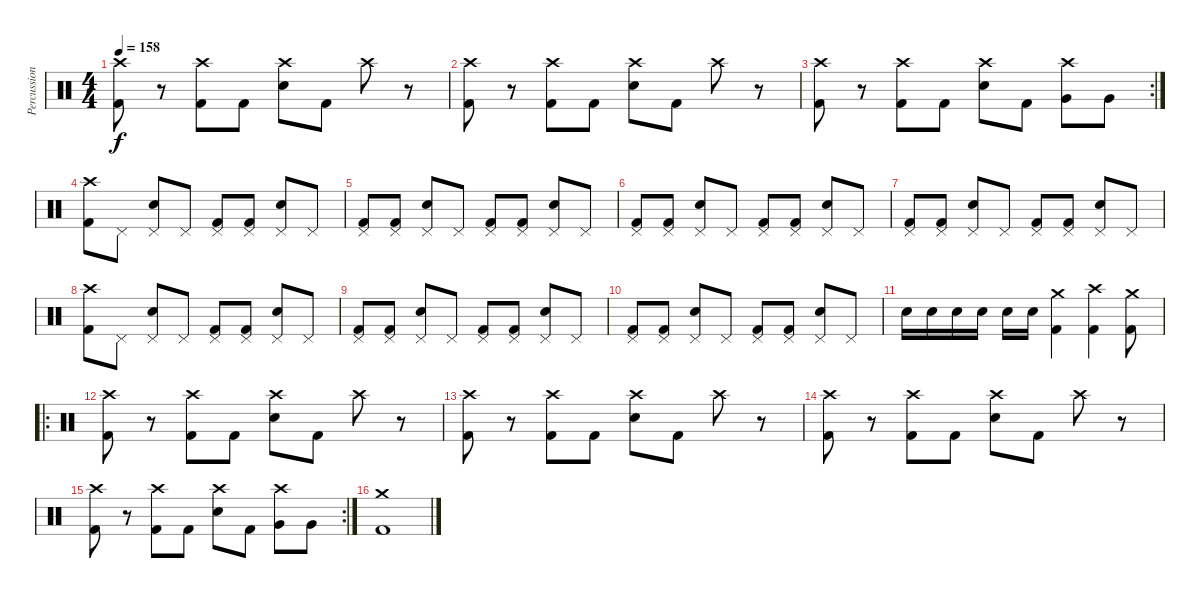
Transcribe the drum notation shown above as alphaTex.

\track ("Percussion" "Percussion") {instrument percussion}
\staff {score}
\articulation defaults
\ts (4 4)
\tempo 158
\clef neutral
\ks c
("Crash high (hit)" "Kick (hit) 2").8{dy f} r.8 ("Crash high (hit)" "Kick (hit) 2").8 "Kick (hit) 2".8 ("Crash high (hit)" "Snare (hit) 2").8 "Kick (hit) 2".8 "Crash high (hit)".8 r.8 |
("Crash high (hit)" "Kick (hit) 2").8 r.8 ("Crash high (hit)" "Kick (hit) 2").8 "Kick (hit) 2".8 ("Crash high (hit)" "Snare (hit) 2").8 "Kick (hit) 2".8 "Crash high (hit)".8 r.8 |
\rc 2
("Crash high (hit)" "Kick (hit) 2").8 r.8 ("Crash high (hit)" "Kick (hit) 2").8 "Kick (hit) 2".8 ("Crash high (hit)" "Snare (hit) 2").8 "Kick (hit) 2".8 ("Crash high (hit)" "Very Low Tom (hit)").8 "Very Low Tom (hit)".8 |
("Crash high (hit)" "Kick (hit) 2").8 "Pedal Hi-Hat (hit)".8 ("Pedal Hi-Hat (hit)" "Snare (hit) 2").8 "Pedal Hi-Hat (hit)".8 ("Pedal Hi-Hat (hit)" "Kick (hit) 2").8 ("Pedal Hi-Hat (hit)" "Kick (hit) 2").8 ("Pedal Hi-Hat (hit)" "Snare (hit) 2").8 "Pedal Hi-Hat (hit)".8 |
("Pedal Hi-Hat (hit)" "Kick (hit) 2").8 ("Pedal Hi-Hat (hit)" "Kick (hit) 2").8 ("Pedal Hi-Hat (hit)" "Snare (hit) 2").8 "Pedal Hi-Hat (hit)".8 ("Pedal Hi-Hat (hit)" "Kick (hit) 2").8 ("Pedal Hi-Hat (hit)" "Kick (hit) 2").8 ("Pedal Hi-Hat (hit)" "Snare (hit) 2").8 "Pedal Hi-Hat (hit)".8 |
("Pedal Hi-Hat (hit)" "Kick (hit) 2").8 ("Pedal Hi-Hat (hit)" "Kick (hit) 2").8 ("Pedal Hi-Hat (hit)" "Snare (hit) 2").8 "Pedal Hi-Hat (hit)".8 ("Pedal Hi-Hat (hit)" "Kick (hit) 2").8 ("Pedal Hi-Hat (hit)" "Kick (hit) 2").8 ("Pedal Hi-Hat (hit)" "Snare (hit) 2").8 "Pedal Hi-Hat (hit)".8 |
("Pedal Hi-Hat (hit)" "Kick (hit) 2").8 ("Pedal Hi-Hat (hit)" "Kick (hit) 2").8 ("Pedal Hi-Hat (hit)" "Snare (hit) 2").8 "Pedal Hi-Hat (hit)".8 ("Pedal Hi-Hat (hit)" "Kick (hit) 2").8 ("Pedal Hi-Hat (hit)" "Kick (hit) 2").8 ("Pedal Hi-Hat (hit)" "Snare (hit) 2").8 "Pedal Hi-Hat (hit)".8 |
("Crash high (hit)" "Kick (hit) 2").8 "Pedal Hi-Hat (hit)".8 ("Pedal Hi-Hat (hit)" "Snare (hit) 2").8 "Pedal Hi-Hat (hit)".8 ("Pedal Hi-Hat (hit)" "Kick (hit) 2").8 ("Pedal Hi-Hat (hit)" "Kick (hit) 2").8 ("Pedal Hi-Hat (hit)" "Snare (hit) 2").8 "Pedal Hi-Hat (hit)".8 |
("Pedal Hi-Hat (hit)" "Kick (hit) 2").8 ("Pedal Hi-Hat (hit)" "Kick (hit) 2").8 ("Pedal Hi-Hat (hit)" "Snare (hit) 2").8 "Pedal Hi-Hat (hit)".8 ("Pedal Hi-Hat (hit)" "Kick (hit) 2").8 ("Pedal Hi-Hat (hit)" "Kick (hit) 2").8 ("Pedal Hi-Hat (hit)" "Snare (hit) 2").8 "Pedal Hi-Hat (hit)".8 |
("Pedal Hi-Hat (hit)" "Kick (hit) 2").8 ("Pedal Hi-Hat (hit)" "Kick (hit) 2").8 ("Pedal Hi-Hat (hit)" "Snare (hit) 2").8 "Pedal Hi-Hat (hit)".8 ("Pedal Hi-Hat (hit)" "Kick (hit) 2").8 ("Pedal Hi-Hat (hit)" "Kick (hit) 2").8 ("Pedal Hi-Hat (hit)" "Snare (hit) 2").8 "Pedal Hi-Hat (hit)".8 |
"Snare (hit) 2".16 "Snare (hit) 2".16 "Snare (hit) 2".16 "Snare (hit) 2".16 "Snare (hit) 2".16 "Snare (hit) 2".16 ("Crash medium (hit)" "Kick (hit) 2").4 ("Crash high (hit)" "Kick (hit) 2").4 ("Crash medium (hit)" "Kick (hit) 2").8 |
\ro
("Crash high (hit)" "Kick (hit) 2").8 r.8 ("Crash high (hit)" "Kick (hit) 2").8 "Kick (hit) 2".8 ("Crash high (hit)" "Snare (hit) 2").8 "Kick (hit) 2".8 "Crash high (hit)".8 r.8 |
("Crash high (hit)" "Kick (hit) 2").8 r.8 ("Crash high (hit)" "Kick (hit) 2").8 "Kick (hit) 2".8 ("Crash high (hit)" "Snare (hit) 2").8 "Kick (hit) 2".8 "Crash high (hit)".8 r.8 |
("Crash high (hit)" "Kick (hit) 2").8 r.8 ("Crash high (hit)" "Kick (hit) 2").8 "Kick (hit) 2".8 ("Crash high (hit)" "Snare (hit) 2").8 "Kick (hit) 2".8 "Crash high (hit)".8 r.8 |
\rc 2
("Crash high (hit)" "Kick (hit) 2").8 r.8 ("Crash high (hit)" "Kick (hit) 2").8 "Kick (hit) 2".8 ("Crash high (hit)" "Snare (hit) 2").8 "Kick (hit) 2".8 ("Crash high (hit)" "Very Low Tom (hit)").8 "Very Low Tom (hit)".8 |
("Crash medium (hit)" "Kick (hit) 2").1
